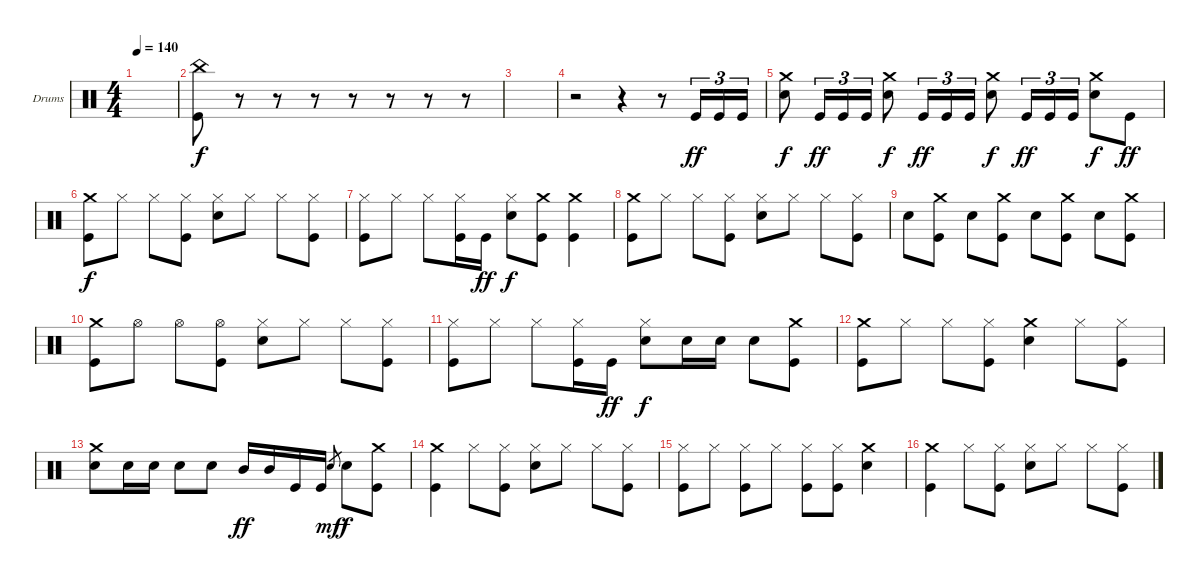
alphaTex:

\defaultSystemsLayout 4
\bracketExtendMode groupsimilarinstruments
\firstSystemTrackNameOrientation horizontal
\otherSystemsTrackNameOrientation horizontal
\track ("Drumkit" "Drums") {instrument percussion}
\staff {score}
\articulation defaults
\ts (4 4)
\tempo 140
\clef neutral
\ks c
|
("Kick (hit)" "China (hit)").8 r.8 r.8 r.8 r.8 r.8 r.8 r.8 |
|
r.2 r.4 r.8 "Kick (hit)".16{tu (3 2) dy ff} "Kick (hit)".16{tu (3 2)} "Kick (hit)".16{tu (3 2)} |
("Crash medium (hit)" "Snare (hit) 2").8{dy f} "Kick (hit)".16{tu (3 2) dy ff} "Kick (hit)".16{tu (3 2)} "Kick (hit)".16{tu (3 2)} ("Crash medium (hit)" "Snare (hit) 2").8{dy f} "Kick (hit)".16{tu (3 2) dy ff} "Kick (hit)".16{tu (3 2)} "Kick (hit)".16{tu (3 2)} ("Crash medium (hit)" "Snare (hit) 2").8{dy f} "Kick (hit)".16{tu (3 2) dy ff} "Kick (hit)".16{tu (3 2)} "Kick (hit)".16{tu (3 2)} ("Crash medium (hit)" "Snare (hit) 2").8{dy f} "Kick (hit)".8{dy ff} |
("Crash medium (hit)" "Kick (hit)").8{dy f} "Hi-Hat (closed)".8 "Hi-Hat (closed)".8 ("Hi-Hat (closed)" "Kick (hit)").8 ("Hi-Hat (closed)" "Snare (hit) 2").8 "Hi-Hat (closed)".8 "Hi-Hat (closed)".8 ("Hi-Hat (closed)" "Kick (hit)").8 |
("Hi-Hat (closed)" "Kick (hit)").8 "Hi-Hat (closed)".8 "Hi-Hat (closed)".8 ("Hi-Hat (closed)" "Kick (hit)").16 "Kick (hit)".16{dy ff} ("Hi-Hat (closed)" "Snare (hit) 2").8{dy f} ("Crash medium (hit)" "Kick (hit)").8 ("Crash medium (hit)" "Kick (hit)").4 |
("Crash medium (hit)" "Kick (hit)").8 "Hi-Hat (closed)".8 "Hi-Hat (closed)".8 ("Hi-Hat (closed)" "Kick (hit)").8 ("Hi-Hat (closed)" "Snare (hit) 2").8 "Hi-Hat (closed)".8 "Hi-Hat (closed)".8 ("Hi-Hat (closed)" "Kick (hit)").8 |
"Snare (hit) 2".8 ("Crash medium (hit)" "Kick (hit)").8 "Snare (hit) 2".8 ("Crash medium (hit)" "Kick (hit)").8 "Snare (hit) 2".8 ("Crash medium (hit)" "Kick (hit)").8 "Snare (hit) 2".8 ("Crash medium (hit)" "Kick (hit)").8 |
("Crash medium (hit)" "Kick (hit)").8 "Hi-Hat (open)".8 "Hi-Hat (open)".8 ("Hi-Hat (open)" "Kick (hit)").8 ("Hi-Hat (closed)" "Snare (hit) 2").8 "Hi-Hat (closed)".8 "Hi-Hat (closed)".8 ("Hi-Hat (closed)" "Kick (hit)").8 |
("Hi-Hat (closed)" "Kick (hit)").8 "Hi-Hat (closed)".8 "Hi-Hat (closed)".8 ("Hi-Hat (closed)" "Kick (hit)").16 "Kick (hit)".16{dy ff} ("Hi-Hat (closed)" "Snare (hit) 2").8{dy f} "Snare (hit) 2".16 "Snare (hit) 2".16 "Snare (hit) 2".8 ("Crash medium (hit)" "Kick (hit)").8 |
("Crash medium (hit)" "Kick (hit)").8 "Hi-Hat (closed)".8 "Hi-Hat (closed)".8 ("Hi-Hat (closed)" "Kick (hit)").8 ("Crash medium (hit)" "Snare (hit) 2").4 "Hi-Hat (closed)".8 ("Hi-Hat (closed)" "Kick (hit)").8 |
("Crash medium (hit)" "Snare (hit) 2").8 "Snare (hit) 2".16 "Snare (hit) 2".16 "Snare (hit) 2".8 "Snare (hit) 2".8 "Mid Tom (hit)".16{dy ff} "Mid Tom (hit)".16 "Kick (hit)".16 "Kick (hit)".16 "Snare (hit) 2".8{gr dy mf} "Snare (hit) 2".8{dy f} ("Crash medium (hit)" "Kick (hit)").8 |
("Crash medium (hit)" "Kick (hit)").4 "Hi-Hat (closed)".8 ("Hi-Hat (closed)" "Kick (hit)").8 ("Hi-Hat (closed)" "Snare (hit) 2").8 "Hi-Hat (closed)".8 "Hi-Hat (closed)".8 ("Hi-Hat (closed)" "Kick (hit)").8 |
("Hi-Hat (closed)" "Kick (hit)").8 "Hi-Hat (closed)".8 ("Hi-Hat (closed)" "Kick (hit)").8 "Hi-Hat (closed)".8 ("Hi-Hat (closed)" "Kick (hit)").8 ("Hi-Hat (closed)" "Kick (hit)").8 ("Crash medium (hit)" "Snare (hit) 2").4 |
("Crash medium (hit)" "Kick (hit)").4 "Hi-Hat (closed)".8 ("Hi-Hat (closed)" "Kick (hit)").8 ("Hi-Hat (closed)" "Snare (hit) 2").8 "Hi-Hat (closed)".8 "Hi-Hat (closed)".8 ("Hi-Hat (closed)" "Kick (hit)").8
